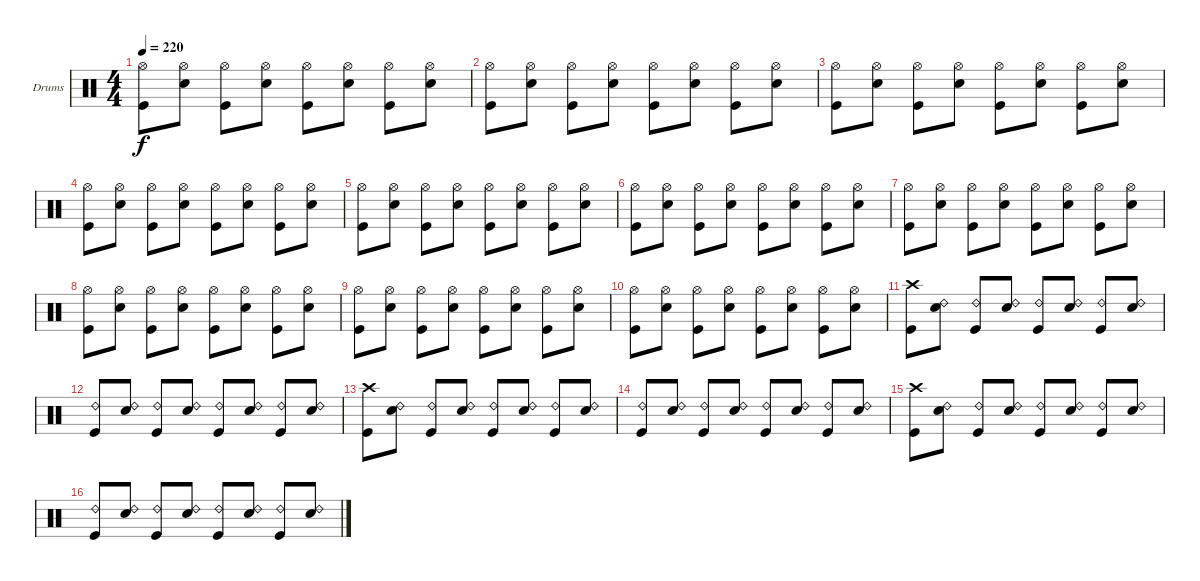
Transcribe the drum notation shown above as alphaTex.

\bracketExtendMode groupsimilarinstruments
\firstSystemTrackNameOrientation horizontal
\otherSystemsTrackNameOrientation horizontal
\track ("Dave Lombardo" "Drums") {instrument percussion}
\staff {score}
\articulation defaults
\ts (4 4)
\tempo 220
\clef neutral
\ks c
("Kick (hit)" "Hi-Hat (open)").8{dy f} ("Snare (hit) 2" "Hi-Hat (open)").8 ("Kick (hit)" "Hi-Hat (open)").8 ("Snare (hit) 2" "Hi-Hat (open)").8 ("Kick (hit)" "Hi-Hat (open)").8 ("Snare (hit) 2" "Hi-Hat (open)").8 ("Kick (hit)" "Hi-Hat (open)").8 ("Snare (hit) 2" "Hi-Hat (open)").8 |
("Kick (hit)" "Hi-Hat (open)").8 ("Snare (hit) 2" "Hi-Hat (open)").8 ("Kick (hit)" "Hi-Hat (open)").8 ("Snare (hit) 2" "Hi-Hat (open)").8 ("Kick (hit)" "Hi-Hat (open)").8 ("Snare (hit) 2" "Hi-Hat (open)").8 ("Kick (hit)" "Hi-Hat (open)").8 ("Snare (hit) 2" "Hi-Hat (open)").8 |
("Kick (hit)" "Hi-Hat (open)").8 ("Snare (hit) 2" "Hi-Hat (open)").8 ("Kick (hit)" "Hi-Hat (open)").8 ("Snare (hit) 2" "Hi-Hat (open)").8 ("Kick (hit)" "Hi-Hat (open)").8 ("Snare (hit) 2" "Hi-Hat (open)").8 ("Kick (hit)" "Hi-Hat (open)").8 ("Snare (hit) 2" "Hi-Hat (open)").8 |
("Kick (hit)" "Hi-Hat (open)").8 ("Snare (hit) 2" "Hi-Hat (open)").8 ("Kick (hit)" "Hi-Hat (open)").8 ("Snare (hit) 2" "Hi-Hat (open)").8 ("Kick (hit)" "Hi-Hat (open)").8 ("Snare (hit) 2" "Hi-Hat (open)").8 ("Kick (hit)" "Hi-Hat (open)").8 ("Snare (hit) 2" "Hi-Hat (open)").8 |
("Kick (hit)" "Hi-Hat (open)").8 ("Snare (hit) 2" "Hi-Hat (open)").8 ("Kick (hit)" "Hi-Hat (open)").8 ("Snare (hit) 2" "Hi-Hat (open)").8 ("Kick (hit)" "Hi-Hat (open)").8 ("Snare (hit) 2" "Hi-Hat (open)").8 ("Kick (hit)" "Hi-Hat (open)").8 ("Snare (hit) 2" "Hi-Hat (open)").8 |
("Kick (hit)" "Hi-Hat (open)").8 ("Snare (hit) 2" "Hi-Hat (open)").8 ("Kick (hit)" "Hi-Hat (open)").8 ("Snare (hit) 2" "Hi-Hat (open)").8 ("Kick (hit)" "Hi-Hat (open)").8 ("Snare (hit) 2" "Hi-Hat (open)").8 ("Kick (hit)" "Hi-Hat (open)").8 ("Snare (hit) 2" "Hi-Hat (open)").8 |
("Kick (hit)" "Hi-Hat (open)").8 ("Snare (hit) 2" "Hi-Hat (open)").8 ("Kick (hit)" "Hi-Hat (open)").8 ("Snare (hit) 2" "Hi-Hat (open)").8 ("Kick (hit)" "Hi-Hat (open)").8 ("Snare (hit) 2" "Hi-Hat (open)").8 ("Kick (hit)" "Hi-Hat (open)").8 ("Snare (hit) 2" "Hi-Hat (open)").8 |
("Kick (hit)" "Hi-Hat (open)").8 ("Snare (hit) 2" "Hi-Hat (open)").8 ("Kick (hit)" "Hi-Hat (open)").8 ("Snare (hit) 2" "Hi-Hat (open)").8 ("Kick (hit)" "Hi-Hat (open)").8 ("Snare (hit) 2" "Hi-Hat (open)").8 ("Kick (hit)" "Hi-Hat (open)").8 ("Snare (hit) 2" "Hi-Hat (open)").8 |
("Kick (hit)" "Hi-Hat (open)").8 ("Snare (hit) 2" "Hi-Hat (open)").8 ("Kick (hit)" "Hi-Hat (open)").8 ("Snare (hit) 2" "Hi-Hat (open)").8 ("Kick (hit)" "Hi-Hat (open)").8 ("Snare (hit) 2" "Hi-Hat (open)").8 ("Kick (hit)" "Hi-Hat (open)").8 ("Snare (hit) 2" "Hi-Hat (open)").8 |
("Kick (hit)" "Hi-Hat (open)").8 ("Snare (hit) 2" "Hi-Hat (open)").8 ("Kick (hit)" "Hi-Hat (open)").8 ("Snare (hit) 2" "Hi-Hat (open)").8 ("Kick (hit)" "Hi-Hat (open)").8 ("Snare (hit) 2" "Hi-Hat (open)").8 ("Kick (hit)" "Hi-Hat (open)").8 ("Snare (hit) 2" "Hi-Hat (open)").8 |
("Kick (hit)" "Crash high (hit)").8 ("Snare (hit) 2" "Ride (bell) 2").8 ("Kick (hit)" "Ride (bell) 2").8 ("Snare (hit) 2" "Ride (bell) 2").8 ("Kick (hit)" "Ride (bell) 2").8 ("Snare (hit) 2" "Ride (bell) 2").8 ("Kick (hit)" "Ride (bell) 2").8 ("Snare (hit) 2" "Ride (bell) 2").8 |
("Kick (hit)" "Ride (bell) 2").8 ("Snare (hit) 2" "Ride (bell) 2").8 ("Kick (hit)" "Ride (bell) 2").8 ("Snare (hit) 2" "Ride (bell) 2").8 ("Kick (hit)" "Ride (bell) 2").8 ("Snare (hit) 2" "Ride (bell) 2").8 ("Kick (hit)" "Ride (bell) 2").8 ("Snare (hit) 2" "Ride (bell) 2").8 |
("Kick (hit)" "Crash high (hit)").8 ("Snare (hit) 2" "Ride (bell) 2").8 ("Kick (hit)" "Ride (bell) 2").8 ("Snare (hit) 2" "Ride (bell) 2").8 ("Kick (hit)" "Ride (bell) 2").8 ("Snare (hit) 2" "Ride (bell) 2").8 ("Kick (hit)" "Ride (bell) 2").8 ("Snare (hit) 2" "Ride (bell) 2").8 |
("Kick (hit)" "Ride (bell) 2").8 ("Snare (hit) 2" "Ride (bell) 2").8 ("Kick (hit)" "Ride (bell) 2").8 ("Snare (hit) 2" "Ride (bell) 2").8 ("Kick (hit)" "Ride (bell) 2").8 ("Snare (hit) 2" "Ride (bell) 2").8 ("Kick (hit)" "Ride (bell) 2").8 ("Snare (hit) 2" "Ride (bell) 2").8 |
("Kick (hit)" "Crash high (hit)").8 ("Snare (hit) 2" "Ride (bell) 2").8 ("Kick (hit)" "Ride (bell) 2").8 ("Snare (hit) 2" "Ride (bell) 2").8 ("Kick (hit)" "Ride (bell) 2").8 ("Snare (hit) 2" "Ride (bell) 2").8 ("Kick (hit)" "Ride (bell) 2").8 ("Snare (hit) 2" "Ride (bell) 2").8 |
("Kick (hit)" "Ride (bell) 2").8 ("Snare (hit) 2" "Ride (bell) 2").8 ("Kick (hit)" "Ride (bell) 2").8 ("Snare (hit) 2" "Ride (bell) 2").8 ("Kick (hit)" "Ride (bell) 2").8 ("Snare (hit) 2" "Ride (bell) 2").8 ("Kick (hit)" "Ride (bell) 2").8 ("Snare (hit) 2" "Ride (bell) 2").8
